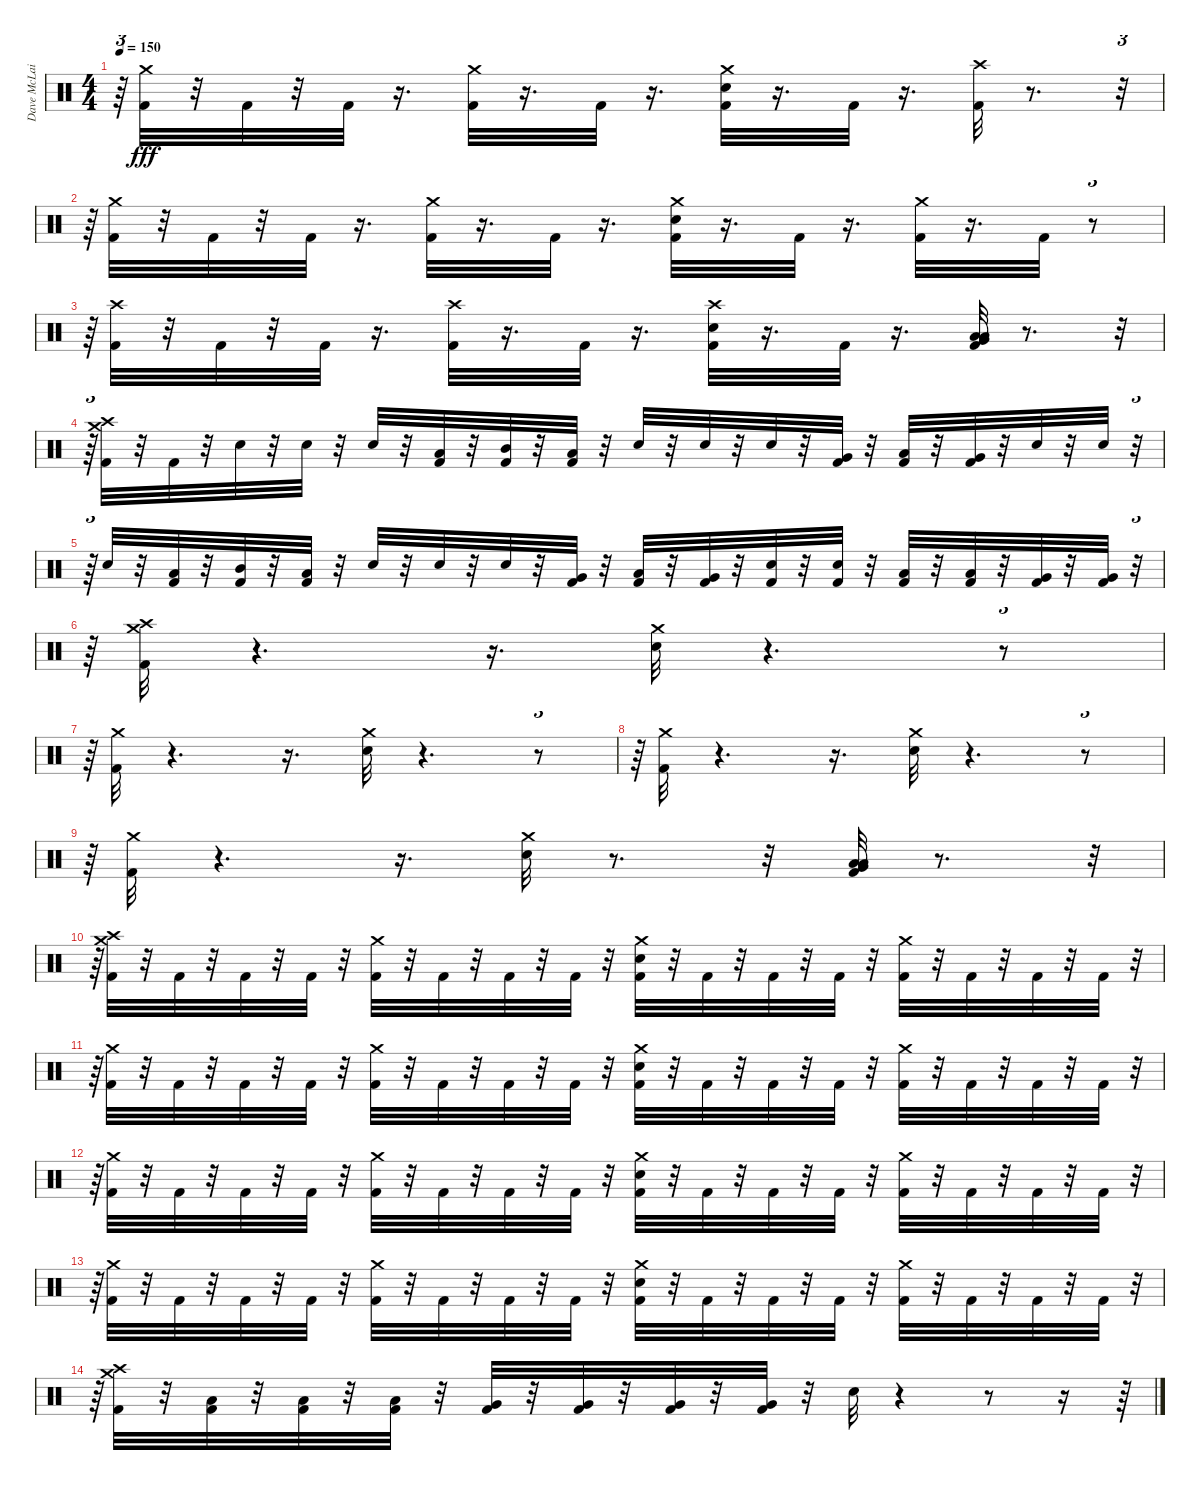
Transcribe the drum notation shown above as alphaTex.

\track ("Dave McLain" "Dave McLai") {instrument percussion}
\staff {score}
\articulation defaults
\ts (4 4)
\tempo 150
\clef neutral
\ks c
r.64{tu (3 2) dy fff} ("Crash medium (hit)" "Kick (hit) 2").32 r.32 "Kick (hit) 2".32 r.32 "Kick (hit) 2".32 r.16{d} ("Crash medium (hit)" "Kick (hit) 2").32 r.16{d} "Kick (hit) 2".32 r.16{d} ("Snare (hit) 2" "Crash medium (hit)" "Kick (hit) 2").32 r.16{d} "Kick (hit) 2".32 r.16{d} ("Crash high (hit)" "Kick (hit) 2").32 r.8{d} r.32{tu (3 2)} |
r.64{tu (3 2)} ("Crash medium (hit)" "Kick (hit) 2").32 r.32 "Kick (hit) 2".32 r.32 "Kick (hit) 2".32 r.16{d} ("Kick (hit) 2" "Crash medium (hit)").32 r.16{d} "Kick (hit) 2".32 r.16{d} ("Snare (hit) 2" "Kick (hit) 2" "Crash medium (hit)").32 r.16{d} "Kick (hit) 2".32 r.16{d} ("Crash medium (hit)" "Kick (hit) 2").32 r.16{d} "Kick (hit) 2".32 r.8{tu (3 2)} |
r.64{tu (3 2)} ("Crash high (hit)" "Kick (hit) 2").32 r.32 "Kick (hit) 2".32 r.32 "Kick (hit) 2".32 r.16{d} ("Crash high (hit)" "Kick (hit) 2").32 r.16{d} "Kick (hit) 2".32 r.16{d} ("Crash high (hit)" "Snare (hit) 2" "Kick (hit) 2").32 r.16{d} "Kick (hit) 2".32 r.16{d} ("Low Floor Tom (hit)" "Very Low Tom (hit)" "Low Tom (hit)" "Kick (hit) 2").32 r.8{d} r.32{tu (3 2)} |
r.64{tu (3 2)} ("Crash medium (hit)" "Crash high (hit)" "Kick (hit) 2").32 r.32 "Kick (hit) 2".32 r.32 "Snare (hit) 2".32 r.32 "Snare (hit) 2".32 r.32 "Snare (hit) 2".32 r.32 ("Low Tom (hit)" "Kick (hit) 2").32 r.32 ("Mid Tom (hit)" "Kick (hit) 2").32 r.32 ("Low Tom (hit)" "Kick (hit) 2").32 r.32 "Snare (hit) 2".32 r.32 "Snare (hit) 2".32 r.32 "Snare (hit) 2".32 r.32 ("Very Low Tom (hit)" "Kick (hit) 2").32 r.32 ("Low Tom (hit)" "Kick (hit) 2").32 r.32 ("Very Low Tom (hit)" "Kick (hit) 2").32 r.32 "Snare (hit) 2".32 r.32 "Snare (hit) 2".32 r.32{tu (3 2)} |
r.64{tu (3 2)} "Snare (hit) 2".32 r.32 ("Low Tom (hit)" "Kick (hit) 2").32 r.32 ("Mid Tom (hit)" "Kick (hit) 2").32 r.32 ("Low Tom (hit)" "Kick (hit) 2").32 r.32 "Snare (hit) 2".32 r.32 "Snare (hit) 2".32 r.32 "Snare (hit) 2".32 r.32 ("Very Low Tom (hit)" "Kick (hit) 2").32 r.32 ("Low Tom (hit)" "Kick (hit) 2").32 r.32 ("Very Low Tom (hit)" "Kick (hit) 2").32 r.32 ("Kick (hit) 2" "Snare (hit) 2").32 r.32 ("Kick (hit) 2" "Snare (hit) 2").32 r.32 ("Low Tom (hit)" "Kick (hit) 2").32 r.32 ("Low Tom (hit)" "Kick (hit) 2").32 r.32 ("Very Low Tom (hit)" "Kick (hit) 2").32 r.32 ("Very Low Tom (hit)" "Kick (hit) 2").32 r.32{tu (3 2)} |
r.64{tu (3 2)} ("Crash medium (hit)" "Crash high (hit)" "Kick (hit) 2").32 r.4{d} r.16{d} ("Snare (hit) 2" "Crash medium (hit)").32 r.4{d} r.8{tu (3 2)} |
r.64{tu (3 2)} ("Crash medium (hit)" "Kick (hit) 2").32 r.4{d} r.16{d} ("Snare (hit) 2" "Crash medium (hit)").32 r.4{d} r.8{tu (3 2)} |
r.64{tu (3 2)} ("Crash medium (hit)" "Kick (hit) 2").32 r.4{d} r.16{d} ("Snare (hit) 2" "Crash medium (hit)").32 r.4{d} r.8{tu (3 2)} |
r.64{tu (3 2)} ("Crash medium (hit)" "Kick (hit) 2").32 r.4{d} r.16{d} ("Snare (hit) 2" "Crash medium (hit)").32 r.8{d} r.32 ("Low Tom (hit)" "Very Low Tom (hit)" "Low Floor Tom (hit)" "Kick (hit) 2").32 r.8{d} r.32{tu (3 2)} |
r.64{tu (3 2)} ("Crash medium (hit)" "Crash high (hit)" "Kick (hit) 2").32 r.32 "Kick (hit) 2".32 r.32 "Kick (hit) 2".32 r.32 "Kick (hit) 2".32 r.32 ("Crash medium (hit)" "Kick (hit) 2").32 r.32 "Kick (hit) 2".32 r.32 "Kick (hit) 2".32 r.32 "Kick (hit) 2".32 r.32 ("Kick (hit) 2" "Snare (hit) 2" "Crash medium (hit)").32 r.32 "Kick (hit) 2".32 r.32 "Kick (hit) 2".32 r.32 "Kick (hit) 2".32 r.32 ("Crash medium (hit)" "Kick (hit) 2").32 r.32 "Kick (hit) 2".32 r.32 "Kick (hit) 2".32 r.32 "Kick (hit) 2".32 r.32{tu (3 2)} |
r.64{tu (3 2)} ("Crash medium (hit)" "Kick (hit) 2").32 r.32 "Kick (hit) 2".32 r.32 "Kick (hit) 2".32 r.32 "Kick (hit) 2".32 r.32 ("Crash medium (hit)" "Kick (hit) 2").32 r.32 "Kick (hit) 2".32 r.32 "Kick (hit) 2".32 r.32 "Kick (hit) 2".32 r.32 ("Kick (hit) 2" "Snare (hit) 2" "Crash medium (hit)").32 r.32 "Kick (hit) 2".32 r.32 "Kick (hit) 2".32 r.32 "Kick (hit) 2".32 r.32 ("Crash medium (hit)" "Kick (hit) 2").32 r.32 "Kick (hit) 2".32 r.32 "Kick (hit) 2".32 r.32 "Kick (hit) 2".32 r.32{tu (3 2)} |
r.64{tu (3 2)} ("Crash medium (hit)" "Kick (hit) 2").32 r.32 "Kick (hit) 2".32 r.32 "Kick (hit) 2".32 r.32 "Kick (hit) 2".32 r.32 ("Crash medium (hit)" "Kick (hit) 2").32 r.32 "Kick (hit) 2".32 r.32 "Kick (hit) 2".32 r.32 "Kick (hit) 2".32 r.32 ("Kick (hit) 2" "Snare (hit) 2" "Crash medium (hit)").32 r.32 "Kick (hit) 2".32 r.32 "Kick (hit) 2".32 r.32 "Kick (hit) 2".32 r.32 ("Crash medium (hit)" "Kick (hit) 2").32 r.32 "Kick (hit) 2".32 r.32 "Kick (hit) 2".32 r.32 "Kick (hit) 2".32 r.32{tu (3 2)} |
r.64{tu (3 2)} ("Crash medium (hit)" "Kick (hit) 2").32 r.32 "Kick (hit) 2".32 r.32 "Kick (hit) 2".32 r.32 "Kick (hit) 2".32 r.32 ("Crash medium (hit)" "Kick (hit) 2").32 r.32 "Kick (hit) 2".32 r.32 "Kick (hit) 2".32 r.32 "Kick (hit) 2".32 r.32 ("Kick (hit) 2" "Snare (hit) 2" "Crash medium (hit)").32 r.32 "Kick (hit) 2".32 r.32 "Kick (hit) 2".32 r.32 "Kick (hit) 2".32 r.32 ("Crash medium (hit)" "Kick (hit) 2").32 r.32 "Kick (hit) 2".32 r.32 "Kick (hit) 2".32 r.32 "Kick (hit) 2".32 r.32{tu (3 2)} |
r.64{tu (3 2)} ("Kick (hit) 2" "Crash medium (hit)" "Crash high (hit)").32 r.32 ("Low Tom (hit)" "Kick (hit) 2").32 r.32 ("Low Tom (hit)" "Kick (hit) 2").32 r.32 ("Low Tom (hit)" "Kick (hit) 2").32 r.32 ("Very Low Tom (hit)" "Kick (hit) 2").32 r.32 ("Very Low Tom (hit)" "Kick (hit) 2").32 r.32 ("Very Low Tom (hit)" "Kick (hit) 2").32 r.32 ("Very Low Tom (hit)" "Kick (hit) 2").32 r.32 "Snare (hit) 2".32 r.4 r.8 r.16 r.64
